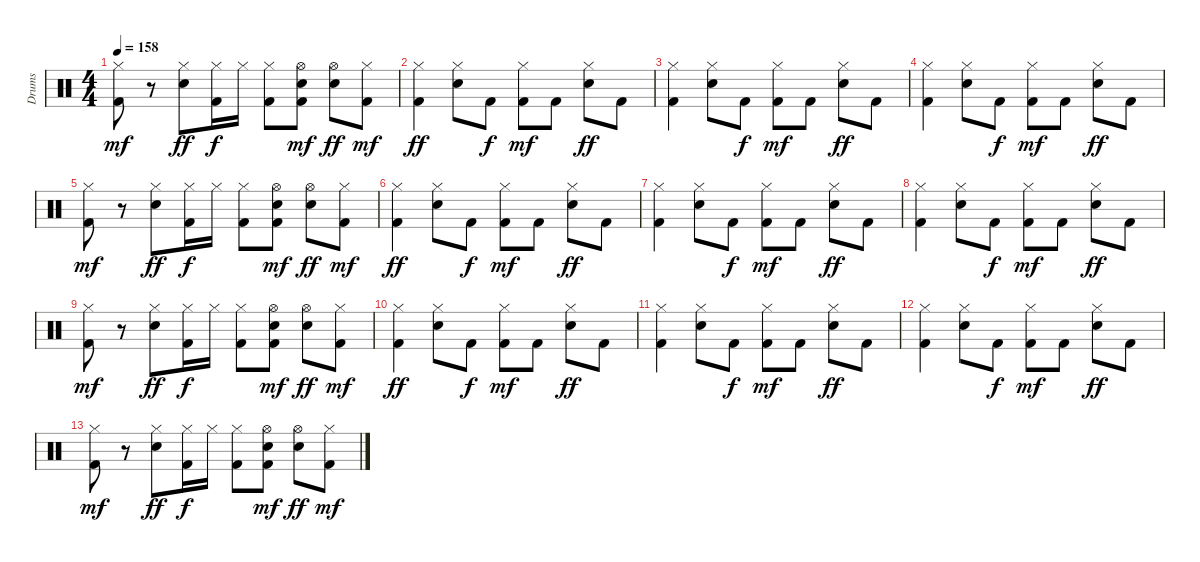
\track ("Drums" "Drums") {instrument percussion}
\staff {score}
\articulation defaults
\ts (4 4)
\tempo 158
\clef neutral
\ks c
("Hi-Hat (closed)" "Kick (hit) 2").8{dy mf} r.8 ("Hi-Hat (closed)" "Snare (hit) 2").8{dy ff} ("Hi-Hat (closed)" "Kick (hit) 2").16{dy f} "Hi-Hat (closed)".16 ("Hi-Hat (closed)" "Kick (hit) 2").8 ("Hi-Hat (open)" "Snare (hit) 2" "Kick (hit) 2").8{dy mf} ("Hi-Hat (open)" "Snare (hit) 2").8{dy ff} ("Hi-Hat (closed)" "Kick (hit) 2").8{dy mf} |
("Hi-Hat (closed)" "Kick (hit) 2").4{dy ff} ("Hi-Hat (closed)" "Snare (hit) 2").8 "Kick (hit) 2".8{dy f} ("Hi-Hat (closed)" "Kick (hit) 2").8{dy mf} "Kick (hit) 2".8 ("Hi-Hat (closed)" "Snare (hit) 2").8{dy ff} "Kick (hit) 2".8 |
("Hi-Hat (closed)" "Kick (hit) 2").4 ("Hi-Hat (closed)" "Snare (hit) 2").8 "Kick (hit) 2".8{dy f} ("Hi-Hat (closed)" "Kick (hit) 2").8{dy mf} "Kick (hit) 2".8 ("Hi-Hat (closed)" "Snare (hit) 2").8{dy ff} "Kick (hit) 2".8 |
("Hi-Hat (closed)" "Kick (hit) 2").4 ("Hi-Hat (closed)" "Snare (hit) 2").8 "Kick (hit) 2".8{dy f} ("Hi-Hat (closed)" "Kick (hit) 2").8{dy mf} "Kick (hit) 2".8 ("Hi-Hat (closed)" "Snare (hit) 2").8{dy ff} "Kick (hit) 2".8 |
("Hi-Hat (closed)" "Kick (hit) 2").8{dy mf} r.8 ("Hi-Hat (closed)" "Snare (hit) 2").8{dy ff} ("Hi-Hat (closed)" "Kick (hit) 2").16{dy f} "Hi-Hat (closed)".16 ("Hi-Hat (closed)" "Kick (hit) 2").8 ("Hi-Hat (open)" "Snare (hit) 2" "Kick (hit) 2").8{dy mf} ("Hi-Hat (open)" "Snare (hit) 2").8{dy ff} ("Hi-Hat (closed)" "Kick (hit) 2").8{dy mf} |
("Hi-Hat (closed)" "Kick (hit) 2").4{dy ff volume 8} ("Hi-Hat (closed)" "Snare (hit) 2").8 "Kick (hit) 2".8{dy f} ("Hi-Hat (closed)" "Kick (hit) 2").8{dy mf} "Kick (hit) 2".8 ("Hi-Hat (closed)" "Snare (hit) 2").8{dy ff} "Kick (hit) 2".8 |
("Hi-Hat (closed)" "Kick (hit) 2").4 ("Hi-Hat (closed)" "Snare (hit) 2").8 "Kick (hit) 2".8{dy f} ("Hi-Hat (closed)" "Kick (hit) 2").8{dy mf} "Kick (hit) 2".8 ("Hi-Hat (closed)" "Snare (hit) 2").8{dy ff} "Kick (hit) 2".8 |
("Hi-Hat (closed)" "Kick (hit) 2").4 ("Hi-Hat (closed)" "Snare (hit) 2").8 "Kick (hit) 2".8{dy f} ("Hi-Hat (closed)" "Kick (hit) 2").8{dy mf} "Kick (hit) 2".8 ("Hi-Hat (closed)" "Snare (hit) 2").8{dy ff} "Kick (hit) 2".8 |
("Hi-Hat (closed)" "Kick (hit) 2").8{dy mf} r.8 ("Hi-Hat (closed)" "Snare (hit) 2").8{dy ff} ("Hi-Hat (closed)" "Kick (hit) 2").16{dy f} "Hi-Hat (closed)".16 ("Hi-Hat (closed)" "Kick (hit) 2").8 ("Hi-Hat (open)" "Snare (hit) 2" "Kick (hit) 2").8{dy mf} ("Hi-Hat (open)" "Snare (hit) 2").8{dy ff} ("Hi-Hat (closed)" "Kick (hit) 2").8{dy mf} |
("Hi-Hat (closed)" "Kick (hit) 2").4{dy ff volume 0} ("Hi-Hat (closed)" "Snare (hit) 2").8 "Kick (hit) 2".8{dy f} ("Hi-Hat (closed)" "Kick (hit) 2").8{dy mf} "Kick (hit) 2".8 ("Hi-Hat (closed)" "Snare (hit) 2").8{dy ff} "Kick (hit) 2".8 |
("Hi-Hat (closed)" "Kick (hit) 2").4 ("Hi-Hat (closed)" "Snare (hit) 2").8 "Kick (hit) 2".8{dy f} ("Hi-Hat (closed)" "Kick (hit) 2").8{dy mf} "Kick (hit) 2".8 ("Hi-Hat (closed)" "Snare (hit) 2").8{dy ff} "Kick (hit) 2".8 |
("Hi-Hat (closed)" "Kick (hit) 2").4 ("Hi-Hat (closed)" "Snare (hit) 2").8 "Kick (hit) 2".8{dy f} ("Hi-Hat (closed)" "Kick (hit) 2").8{dy mf} "Kick (hit) 2".8 ("Hi-Hat (closed)" "Snare (hit) 2").8{dy ff} "Kick (hit) 2".8 |
("Hi-Hat (closed)" "Kick (hit) 2").8{dy mf} r.8 ("Hi-Hat (closed)" "Snare (hit) 2").8{dy ff} ("Hi-Hat (closed)" "Kick (hit) 2").16{dy f} "Hi-Hat (closed)".16 ("Hi-Hat (closed)" "Kick (hit) 2").8 ("Hi-Hat (open)" "Snare (hit) 2" "Kick (hit) 2").8{dy mf} ("Hi-Hat (open)" "Snare (hit) 2").8{dy ff} ("Hi-Hat (closed)" "Kick (hit) 2").8{dy mf}
